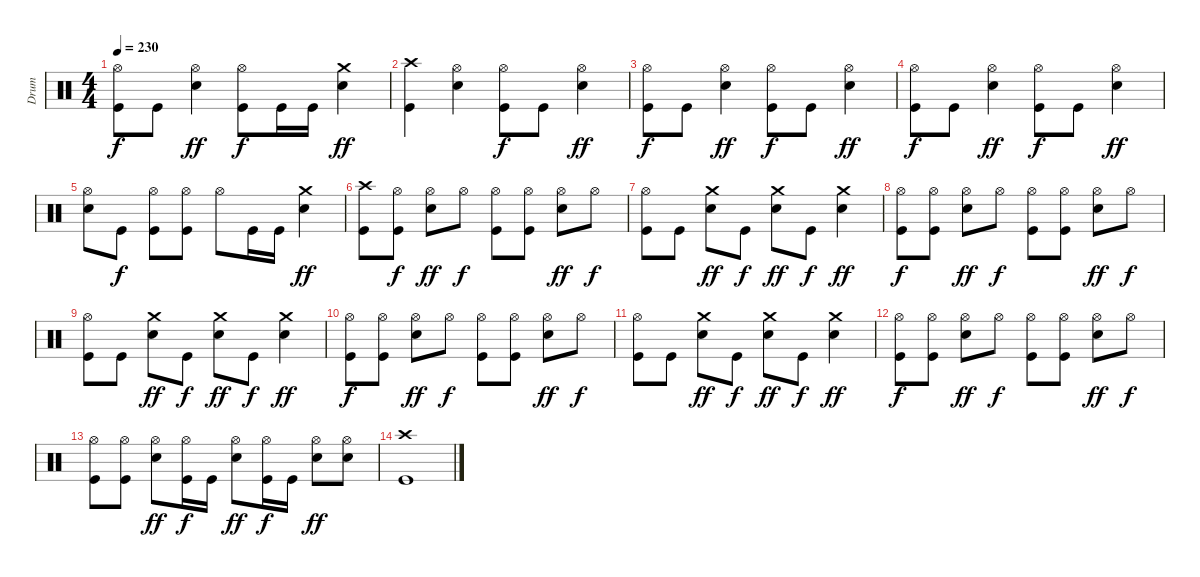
\track ("Drum" "Drum") {instrument percussion}
\staff {score}
\articulation defaults
\ts (4 4)
\tempo 230
\clef neutral
\ks c
("Kick (hit)" "Hi-Hat (open)").8{dy f} "Kick (hit)".8 ("Electric Snare (hit)" "Hi-Hat (open)").4{dy ff} ("Kick (hit)" "Hi-Hat (open)").8{dy f} "Kick (hit)".16 "Kick (hit)".16 ("Electric Snare (hit)" "Crash medium (hit)").4{dy ff} |
("Kick (hit)" "Crash high (hit)").4 ("Electric Snare (hit)" "Hi-Hat (open)").4 ("Kick (hit)" "Hi-Hat (open)").8{dy f} "Kick (hit)".8 ("Electric Snare (hit)" "Hi-Hat (open)").4{dy ff} |
("Kick (hit)" "Hi-Hat (open)").8{dy f} "Kick (hit)".8 ("Electric Snare (hit)" "Hi-Hat (open)").4{dy ff} ("Kick (hit)" "Hi-Hat (open)").8{dy f} "Kick (hit)".8 ("Electric Snare (hit)" "Hi-Hat (open)").4{dy ff} |
("Kick (hit)" "Hi-Hat (open)").8{dy f} "Kick (hit)".8 ("Electric Snare (hit)" "Hi-Hat (open)").4{dy ff} ("Kick (hit)" "Hi-Hat (open)").8{dy f} "Kick (hit)".8 ("Electric Snare (hit)" "Hi-Hat (open)").4{dy ff} |
("Electric Snare (hit)" "Hi-Hat (open)").8 "Kick (hit)".8{dy f} ("Kick (hit)" "Hi-Hat (open)").8 ("Kick (hit)" "Hi-Hat (open)").8 "Hi-Hat (open)".8 "Kick (hit)".16 "Kick (hit)".16 ("Electric Snare (hit)" "Crash medium (hit)").4{dy ff} |
("Kick (hit)" "Crash high (hit)").8 ("Kick (hit)" "Hi-Hat (open)").8{dy f} ("Electric Snare (hit)" "Hi-Hat (open)").8{dy ff} "Hi-Hat (open)".8{dy f} ("Kick (hit)" "Hi-Hat (open)").8 ("Kick (hit)" "Hi-Hat (open)").8 ("Electric Snare (hit)" "Hi-Hat (open)").8{dy ff} "Hi-Hat (open)".8{dy f} |
("Kick (hit)" "Hi-Hat (open)").8 "Kick (hit)".8 ("Electric Snare (hit)" "Crash medium (hit)").8{dy ff} "Kick (hit)".8{dy f} ("Electric Snare (hit)" "Crash medium (hit)").8{dy ff} "Kick (hit)".8{dy f} ("Electric Snare (hit)" "Crash medium (hit)").4{dy ff} |
("Kick (hit)" "Hi-Hat (open)").8{dy f} ("Kick (hit)" "Hi-Hat (open)").8 ("Electric Snare (hit)" "Hi-Hat (open)").8{dy ff} "Hi-Hat (open)".8{dy f} ("Kick (hit)" "Hi-Hat (open)").8 ("Kick (hit)" "Hi-Hat (open)").8 ("Electric Snare (hit)" "Hi-Hat (open)").8{dy ff} "Hi-Hat (open)".8{dy f} |
("Kick (hit)" "Hi-Hat (open)").8 "Kick (hit)".8 ("Electric Snare (hit)" "Crash medium (hit)").8{dy ff} "Kick (hit)".8{dy f} ("Electric Snare (hit)" "Crash medium (hit)").8{dy ff} "Kick (hit)".8{dy f} ("Electric Snare (hit)" "Crash medium (hit)").4{dy ff} |
("Kick (hit)" "Hi-Hat (open)").8{dy f} ("Kick (hit)" "Hi-Hat (open)").8 ("Electric Snare (hit)" "Hi-Hat (open)").8{dy ff} "Hi-Hat (open)".8{dy f} ("Kick (hit)" "Hi-Hat (open)").8 ("Kick (hit)" "Hi-Hat (open)").8 ("Electric Snare (hit)" "Hi-Hat (open)").8{dy ff} "Hi-Hat (open)".8{dy f} |
("Kick (hit)" "Hi-Hat (open)").8 "Kick (hit)".8 ("Electric Snare (hit)" "Crash medium (hit)").8{dy ff} "Kick (hit)".8{dy f} ("Electric Snare (hit)" "Crash medium (hit)").8{dy ff} "Kick (hit)".8{dy f} ("Electric Snare (hit)" "Crash medium (hit)").4{dy ff} |
("Kick (hit)" "Hi-Hat (open)").8{dy f} ("Kick (hit)" "Hi-Hat (open)").8 ("Electric Snare (hit)" "Hi-Hat (open)").8{dy ff} "Hi-Hat (open)".8{dy f} ("Kick (hit)" "Hi-Hat (open)").8 ("Kick (hit)" "Hi-Hat (open)").8 ("Electric Snare (hit)" "Hi-Hat (open)").8{dy ff} "Hi-Hat (open)".8{dy f} |
("Kick (hit)" "Hi-Hat (open)").8 ("Kick (hit)" "Hi-Hat (open)").8 ("Electric Snare (hit)" "Hi-Hat (open)").8{dy ff} ("Kick (hit)" "Hi-Hat (open)").16{dy f} "Kick (hit)".16 ("Electric Snare (hit)" "Hi-Hat (open)").8{dy ff} ("Kick (hit)" "Hi-Hat (open)").16{dy f} "Kick (hit)".16 ("Electric Snare (hit)" "Hi-Hat (open)").8{dy ff} ("Electric Snare (hit)" "Hi-Hat (open)").8 |
("Kick (hit)" "Crash high (hit)").1
